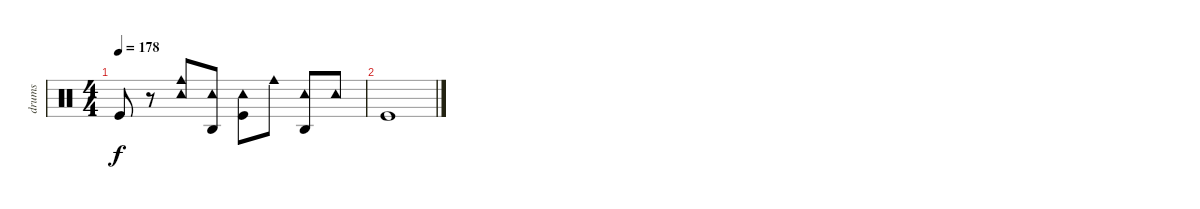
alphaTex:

\track ("drums" "drums") {instrument percussion}
\staff {score}
\articulation defaults
\ts (4 4)
\tempo 178
\clef neutral
\ks c "Kick (hit)".8{dy f}
r.8 ("Tambourine (hit)" "Cowbell medium (hit)").8 ("Agogo high (hit)" "Tambourine (hit)").8 ("Tambourine (hit)" "Kick (hit)").8 "Cowbell medium (hit)".8 ("Agogo high (hit)" "Tambourine (hit)").8 "Tambourine (hit)".8 |
"Kick (hit)".1
